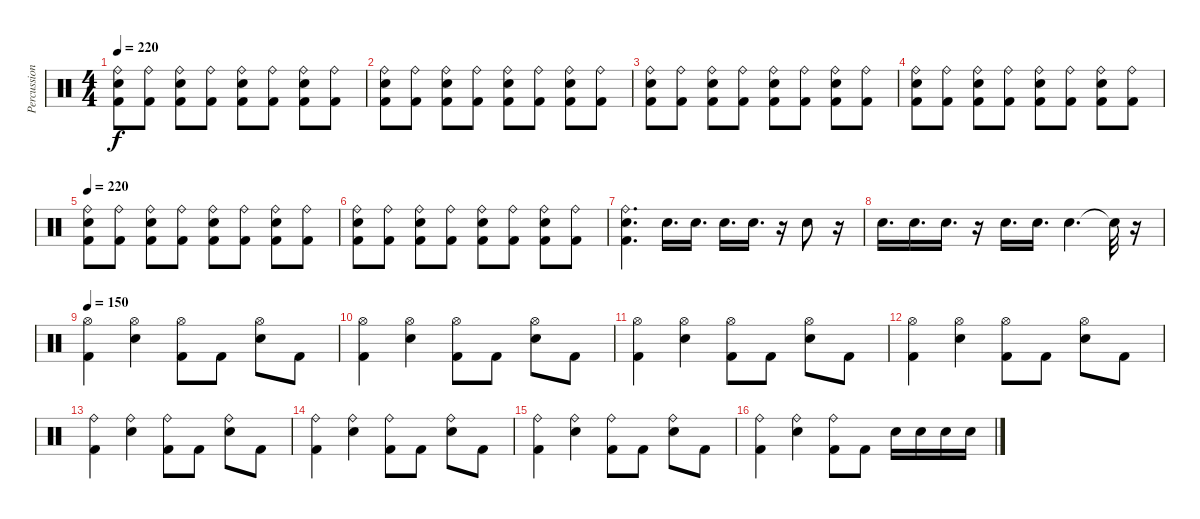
\track ("Percussion" "Percussion") {instrument percussion}
\staff {score}
\articulation defaults
\ts (4 4)
\tempo 220
\clef neutral
\ks c
("Kick (hit) 2" "Snare (hit) 2" "Ride (bell)").8{dy f} ("Kick (hit) 2" "Ride (bell)").8 ("Kick (hit) 2" "Snare (hit) 2" "Ride (bell)").8 ("Kick (hit) 2" "Ride (bell)").8 ("Kick (hit) 2" "Snare (hit) 2" "Ride (bell)").8 ("Kick (hit) 2" "Ride (bell)").8 ("Kick (hit) 2" "Snare (hit) 2" "Ride (bell)").8 ("Kick (hit) 2" "Ride (bell)").8 |
("Kick (hit) 2" "Snare (hit) 2" "Ride (bell)").8 ("Kick (hit) 2" "Ride (bell)").8 ("Kick (hit) 2" "Snare (hit) 2" "Ride (bell)").8 ("Kick (hit) 2" "Ride (bell)").8 ("Kick (hit) 2" "Snare (hit) 2" "Ride (bell)").8 ("Kick (hit) 2" "Ride (bell)").8 ("Kick (hit) 2" "Snare (hit) 2" "Ride (bell)").8 ("Kick (hit) 2" "Ride (bell)").8 |
("Kick (hit) 2" "Snare (hit) 2" "Ride (bell)").8 ("Kick (hit) 2" "Ride (bell)").8 ("Kick (hit) 2" "Snare (hit) 2" "Ride (bell)").8 ("Kick (hit) 2" "Ride (bell)").8 ("Kick (hit) 2" "Snare (hit) 2" "Ride (bell)").8 ("Kick (hit) 2" "Ride (bell)").8 ("Kick (hit) 2" "Snare (hit) 2" "Ride (bell)").8 ("Kick (hit) 2" "Ride (bell)").8 |
("Kick (hit) 2" "Snare (hit) 2" "Ride (bell)").8 ("Kick (hit) 2" "Ride (bell)").8 ("Kick (hit) 2" "Snare (hit) 2" "Ride (bell)").8 ("Kick (hit) 2" "Ride (bell)").8 ("Kick (hit) 2" "Snare (hit) 2" "Ride (bell)").8 ("Kick (hit) 2" "Ride (bell)").8 ("Kick (hit) 2" "Snare (hit) 2" "Ride (bell)").8 ("Kick (hit) 2" "Ride (bell)").8 |
\tempo 220
("Kick (hit) 2" "Snare (hit) 2" "Ride (bell)").8 ("Kick (hit) 2" "Ride (bell)").8 ("Kick (hit) 2" "Snare (hit) 2" "Ride (bell)").8 ("Kick (hit) 2" "Ride (bell)").8 ("Kick (hit) 2" "Snare (hit) 2" "Ride (bell)").8 ("Kick (hit) 2" "Ride (bell)").8 ("Kick (hit) 2" "Snare (hit) 2" "Ride (bell)").8 ("Kick (hit) 2" "Ride (bell)").8 |
("Kick (hit) 2" "Snare (hit) 2" "Ride (bell)").8 ("Kick (hit) 2" "Ride (bell)").8 ("Kick (hit) 2" "Snare (hit) 2" "Ride (bell)").8 ("Kick (hit) 2" "Ride (bell)").8 ("Kick (hit) 2" "Snare (hit) 2" "Ride (bell)").8 ("Kick (hit) 2" "Ride (bell)").8 ("Kick (hit) 2" "Snare (hit) 2" "Ride (bell)").8 ("Kick (hit) 2" "Ride (bell)").8 |
("Kick (hit) 2" "Snare (hit) 2" "Ride (bell)").4{d} "Snare (hit) 2".16{d} "Snare (hit) 2".16{d} "Snare (hit) 2".16{d} "Snare (hit) 2".16{d} r.16 "Snare (hit) 2".8 r.16 |
"Snare (hit) 2".16{d} "Snare (hit) 2".16{d} "Snare (hit) 2".16{d} r.16 "Snare (hit) 2".16{d} "Snare (hit) 2".16{d} "Snare (hit) 2".4{d} "Snare (hit) 2"{t}.32 r.16 |
\tempo 150
("Kick (hit) 2" "Hi-Hat (open)").4 ("Snare (hit) 2" "Hi-Hat (open)").4 ("Kick (hit) 2" "Hi-Hat (open)").8 "Kick (hit) 2".8 ("Snare (hit) 2" "Hi-Hat (open)").8 "Kick (hit) 2".8 |
("Kick (hit) 2" "Hi-Hat (open)").4 ("Snare (hit) 2" "Hi-Hat (open)").4 ("Kick (hit) 2" "Hi-Hat (open)").8 "Kick (hit) 2".8 ("Snare (hit) 2" "Hi-Hat (open)").8 "Kick (hit) 2".8 |
("Kick (hit) 2" "Hi-Hat (open)").4 ("Snare (hit) 2" "Hi-Hat (open)").4 ("Kick (hit) 2" "Hi-Hat (open)").8 "Kick (hit) 2".8 ("Snare (hit) 2" "Hi-Hat (open)").8 "Kick (hit) 2".8 |
("Kick (hit) 2" "Hi-Hat (open)").4 ("Snare (hit) 2" "Hi-Hat (open)").4 ("Kick (hit) 2" "Hi-Hat (open)").8 "Kick (hit) 2".8 ("Snare (hit) 2" "Hi-Hat (open)").8 "Kick (hit) 2".8 |
("Kick (hit) 2" "Ride (bell)").4 ("Snare (hit) 2" "Ride (bell)").4 ("Kick (hit) 2" "Ride (bell)").8 "Kick (hit) 2".8 ("Snare (hit) 2" "Ride (bell)").8 "Kick (hit) 2".8 |
("Kick (hit) 2" "Ride (bell)").4 ("Snare (hit) 2" "Ride (bell)").4 ("Kick (hit) 2" "Ride (bell)").8 "Kick (hit) 2".8 ("Snare (hit) 2" "Ride (bell)").8 "Kick (hit) 2".8 |
("Kick (hit) 2" "Ride (bell)").4 ("Snare (hit) 2" "Ride (bell)").4 ("Kick (hit) 2" "Ride (bell)").8 "Kick (hit) 2".8 ("Snare (hit) 2" "Ride (bell)").8 "Kick (hit) 2".8 |
("Kick (hit) 2" "Ride (bell)").4 ("Snare (hit) 2" "Ride (bell)").4 ("Kick (hit) 2" "Ride (bell)").8 "Kick (hit) 2".8 "Snare (hit) 2".16 "Snare (hit) 2".16 "Snare (hit) 2".16 "Snare (hit) 2".16
